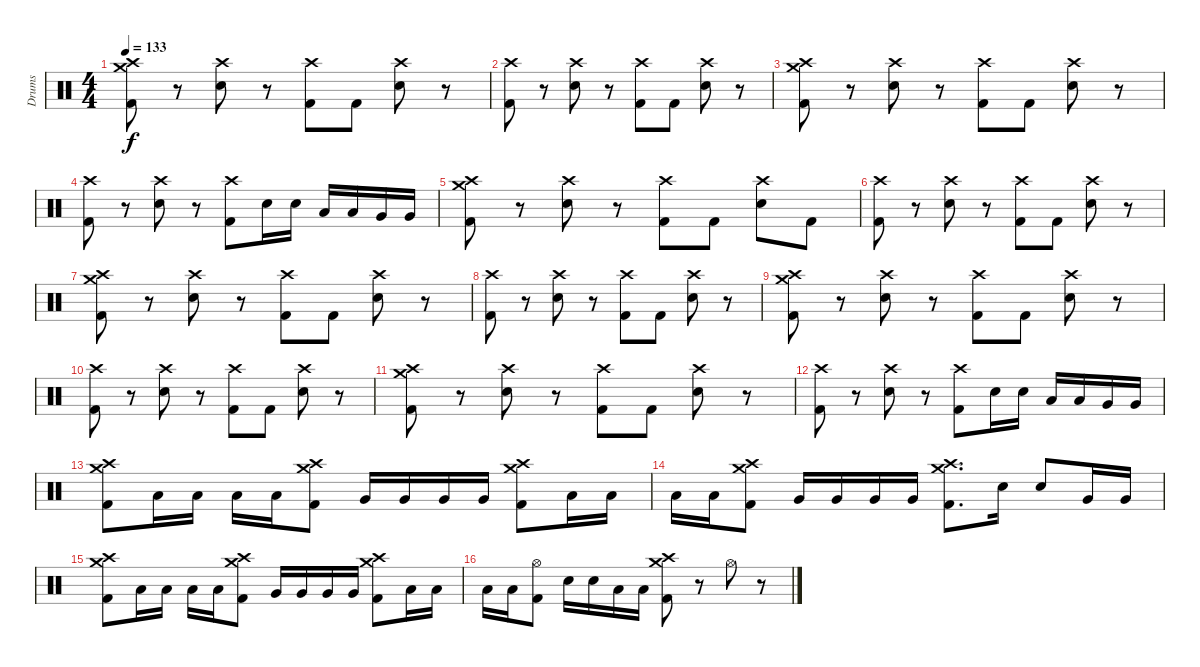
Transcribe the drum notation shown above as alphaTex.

\track ("Drums" "Drums") {instrument percussion}
\staff {score}
\articulation defaults
\ts (4 4)
\tempo 133
\clef neutral
\ks c
("Crash high (hit)" "Crash medium (hit)" "Kick (hit) 2").8{dy f} r.8 ("Crash high (hit)" "Electric Snare (hit)").8 r.8 ("Crash high (hit)" "Kick (hit) 2").8 "Kick (hit) 2".8 ("Crash high (hit)" "Electric Snare (hit)").8 r.8 |
("Crash high (hit)" "Kick (hit) 2").8 r.8 ("Crash high (hit)" "Electric Snare (hit)").8 r.8 ("Crash high (hit)" "Kick (hit) 2").8 "Kick (hit) 2".8 ("Crash high (hit)" "Electric Snare (hit)").8 r.8 |
("Crash high (hit)" "Crash medium (hit)" "Kick (hit) 2").8 r.8 ("Crash high (hit)" "Electric Snare (hit)").8 r.8 ("Crash high (hit)" "Kick (hit) 2").8 "Kick (hit) 2".8 ("Crash high (hit)" "Electric Snare (hit)").8 r.8 |
("Crash high (hit)" "Kick (hit) 2").8 r.8 ("Crash high (hit)" "Electric Snare (hit)").8 r.8 ("Crash high (hit)" "Kick (hit) 2").8 "Electric Snare (hit)".16 "Electric Snare (hit)".16 "Low Tom (hit)".16 "Low Tom (hit)".16 "Very Low Tom (hit)".16 "Very Low Tom (hit)".16 |
("Crash high (hit)" "Crash medium (hit)" "Kick (hit) 2").8 r.8 ("Crash high (hit)" "Electric Snare (hit)").8 r.8 ("Crash high (hit)" "Kick (hit) 2").8 "Kick (hit) 2".8 ("Crash high (hit)" "Electric Snare (hit)").8 "Kick (hit) 2".8 |
("Crash high (hit)" "Kick (hit) 2").8 r.8 ("Crash high (hit)" "Electric Snare (hit)").8 r.8 ("Crash high (hit)" "Kick (hit) 2").8 "Kick (hit) 2".8 ("Crash high (hit)" "Electric Snare (hit)").8 r.8 |
("Crash high (hit)" "Crash medium (hit)" "Kick (hit) 2").8 r.8 ("Crash high (hit)" "Electric Snare (hit)").8 r.8 ("Crash high (hit)" "Kick (hit) 2").8 "Kick (hit) 2".8 ("Crash high (hit)" "Electric Snare (hit)").8 r.8 |
("Crash high (hit)" "Kick (hit) 2").8 r.8 ("Crash high (hit)" "Electric Snare (hit)").8 r.8 ("Crash high (hit)" "Kick (hit) 2").8 "Kick (hit) 2".8 ("Crash high (hit)" "Electric Snare (hit)").8 r.8 |
("Crash high (hit)" "Crash medium (hit)" "Kick (hit) 2").8 r.8 ("Crash high (hit)" "Electric Snare (hit)").8 r.8 ("Crash high (hit)" "Kick (hit) 2").8 "Kick (hit) 2".8 ("Crash high (hit)" "Electric Snare (hit)").8 r.8 |
("Crash high (hit)" "Kick (hit) 2").8 r.8 ("Crash high (hit)" "Electric Snare (hit)").8 r.8 ("Crash high (hit)" "Kick (hit) 2").8 "Kick (hit) 2".8 ("Crash high (hit)" "Electric Snare (hit)").8 r.8 |
("Crash high (hit)" "Crash medium (hit)" "Kick (hit) 2").8 r.8 ("Crash high (hit)" "Electric Snare (hit)").8 r.8 ("Crash high (hit)" "Kick (hit) 2").8 "Kick (hit) 2".8 ("Crash high (hit)" "Electric Snare (hit)").8 r.8 |
("Crash high (hit)" "Kick (hit) 2").8 r.8 ("Crash high (hit)" "Electric Snare (hit)").8 r.8 ("Crash high (hit)" "Kick (hit) 2").8 "Electric Snare (hit)".16 "Electric Snare (hit)".16 "Low Tom (hit)".16 "Low Tom (hit)".16 "Very Low Tom (hit)".16 "Very Low Tom (hit)".16 |
("Crash high (hit)" "Crash medium (hit)" "Kick (hit) 2").8 "Low Tom (hit)".16 "Low Tom (hit)".16 "Low Tom (hit)".16 "Low Tom (hit)".16 ("Crash high (hit)" "Crash medium (hit)" "Kick (hit) 2").8 "Very Low Tom (hit)".16 "Very Low Tom (hit)".16 "Very Low Tom (hit)".16 "Very Low Tom (hit)".16 ("Crash high (hit)" "Crash medium (hit)" "Kick (hit) 2").8 "Low Tom (hit)".16 "Low Tom (hit)".16 |
"Low Tom (hit)".16 "Low Tom (hit)".16 ("Crash high (hit)" "Crash medium (hit)" "Kick (hit) 2").8 "Very Low Tom (hit)".16 "Very Low Tom (hit)".16 "Very Low Tom (hit)".16 "Very Low Tom (hit)".16 ("Crash high (hit)" "Crash medium (hit)" "Kick (hit) 2").8{d} "Electric Snare (hit)".16 "Electric Snare (hit)".8 "Very Low Tom (hit)".16 "Very Low Tom (hit)".16 |
("Crash high (hit)" "Crash medium (hit)" "Kick (hit) 2").8 "Low Tom (hit)".16 "Low Tom (hit)".16 "Low Tom (hit)".16 "Low Tom (hit)".16 ("Crash high (hit)" "Crash medium (hit)" "Kick (hit) 2").8 "Very Low Tom (hit)".16 "Very Low Tom (hit)".16 "Very Low Tom (hit)".16 "Very Low Tom (hit)".16 ("Crash high (hit)" "Crash medium (hit)" "Kick (hit) 2").8 "Low Tom (hit)".16 "Low Tom (hit)".16 |
"Low Tom (hit)".16 "Low Tom (hit)".16 ("Hi-Hat (open)" "Kick (hit) 2").8 "Electric Snare (hit)".16 "Electric Snare (hit)".16 "Low Tom (hit)".16 "Low Tom (hit)".16 ("Crash high (hit)" "Crash medium (hit)" "Kick (hit) 2").8 r.8 "Hi-Hat (open)".8 r.8
